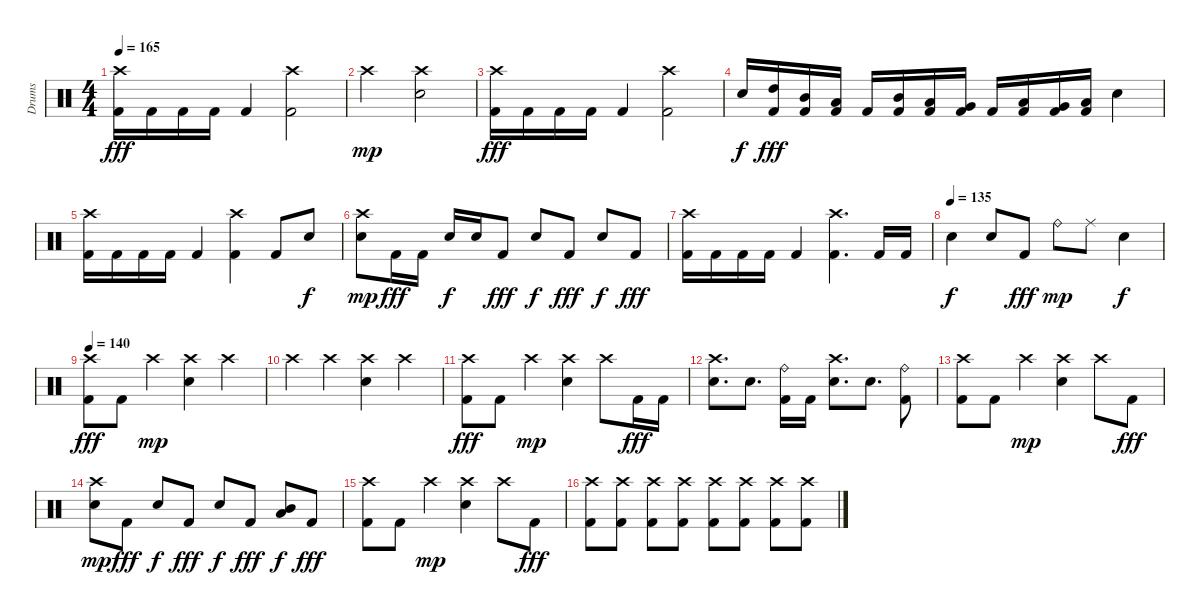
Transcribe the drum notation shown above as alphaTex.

\track ("Drums" "Drums") {instrument percussion}
\staff {score}
\articulation defaults
\ts (4 4)
\tempo 165
\clef neutral
\ks c
("Crash high (hit)" "Kick (hit) 2").16{dy fff} "Kick (hit) 2".16 "Kick (hit) 2".16 "Kick (hit) 2".16 "Kick (hit) 2".4 ("Crash high (hit)" "Kick (hit) 2").2 |
"Crash high (hit)".2{dy mp} ("Crash high (hit)" "Electric Snare (hit)").2 |
("Crash high (hit)" "Kick (hit) 2").16{dy fff} "Kick (hit) 2".16 "Kick (hit) 2".16 "Kick (hit) 2".16 "Kick (hit) 2".4 ("Crash high (hit)" "Kick (hit) 2").2 |
"Electric Snare (hit)".16{dy f} ("High Tom (hit)" "Kick (hit) 2").16{dy fff} ("Mid Tom (hit)" "Kick (hit) 2").16 ("Low Tom (hit)" "Kick (hit) 2").16 "Kick (hit) 2".16 ("Mid Tom (hit)" "Kick (hit) 2").16 ("Low Tom (hit)" "Kick (hit) 2").16 ("Very Low Tom (hit)" "Kick (hit) 2").16 "Kick (hit) 2".16 ("Low Tom (hit)" "Kick (hit) 2").16 ("Very Low Tom (hit)" "Kick (hit) 2").16 ("Low Floor Tom (hit)" "Kick (hit) 2").16 "Electric Snare (hit)".4 |
("Crash high (hit)" "Kick (hit) 2").16 "Kick (hit) 2".16 "Kick (hit) 2".16 "Kick (hit) 2".16 "Kick (hit) 2".4 ("Crash high (hit)" "Kick (hit) 2").4 "Kick (hit) 2".8 "Electric Snare (hit)".8{dy f} |
("Crash high (hit)" "Electric Snare (hit)").8{dy mp} "Kick (hit) 2".16{dy fff} "Kick (hit) 2".16 "Electric Snare (hit)".16{dy f} "Electric Snare (hit)".16 "Kick (hit) 2".8{dy fff} "Electric Snare (hit)".8{dy f} "Kick (hit) 2".8{dy fff} "Electric Snare (hit)".8{dy f} "Kick (hit) 2".8{dy fff} |
("Crash high (hit)" "Kick (hit) 2").16 "Kick (hit) 2".16 "Kick (hit) 2".16 "Kick (hit) 2".16 "Kick (hit) 2".4 ("Crash high (hit)" "Kick (hit) 2").4{d} "Kick (hit) 2".16 "Kick (hit) 2".16 |
\tempo (135)
"Electric Snare (hit)".4{dy f} "Electric Snare (hit)".8 "Kick (hit) 2".8{dy fff} "Ride (bell)".8{dy mp} "Ride (middle)".8 "Electric Snare (hit)".4{dy f} |
\tempo 140
("Crash high (hit)" "Kick (hit) 2").8{dy fff} "Kick (hit) 2".8 "Crash high (hit)".4{dy mp} ("Crash high (hit)" "Electric Snare (hit)").4 "Crash high (hit)".4 |
"Crash high (hit)".4 "Crash high (hit)".4 ("Crash high (hit)" "Electric Snare (hit)").4 "Crash high (hit)".4 |
("Crash high (hit)" "Kick (hit) 2").8{dy fff} "Kick (hit) 2".8 "Crash high (hit)".4{dy mp} ("Crash high (hit)" "Electric Snare (hit)").4 "Crash high (hit)".8 "Kick (hit) 2".16{dy fff} "Kick (hit) 2".16 |
("Crash high (hit)" "Electric Snare (hit)").8{d} "Electric Snare (hit)".8{d} ("Ride (bell)" "Kick (hit) 2").16 "Kick (hit) 2".16 ("Crash high (hit)" "Electric Snare (hit)").8{d} "Electric Snare (hit)".8{d} ("Ride (bell)" "Kick (hit) 2").8 |
("Crash high (hit)" "Kick (hit) 2").8 "Kick (hit) 2".8 "Crash high (hit)".4{dy mp} ("Crash high (hit)" "Electric Snare (hit)").4 "Crash high (hit)".8 "Kick (hit) 2".8{dy fff} |
("Crash high (hit)" "Electric Snare (hit)").8{dy mp} "Kick (hit) 2".8{dy fff} "Electric Snare (hit)".8{dy f} "Kick (hit) 2".8{dy fff} "Electric Snare (hit)".8{dy f} "Kick (hit) 2".8{dy fff} ("Mid Tom (hit)" "Low Tom (hit)").8{dy f} "Kick (hit) 2".8{dy fff} |
("Crash high (hit)" "Kick (hit) 2").8 "Kick (hit) 2".8 "Crash high (hit)".4{dy mp} ("Crash high (hit)" "Electric Snare (hit)").4 "Crash high (hit)".8 "Kick (hit) 2".8{dy fff} |
("Crash high (hit)" "Kick (hit) 2").8 ("Crash high (hit)" "Kick (hit) 2").8 ("Crash high (hit)" "Kick (hit) 2").8 ("Crash high (hit)" "Kick (hit) 2").8 ("Crash high (hit)" "Kick (hit) 2").8 ("Crash high (hit)" "Kick (hit) 2").8 ("Crash high (hit)" "Kick (hit) 2").8 ("Crash high (hit)" "Kick (hit) 2").8
